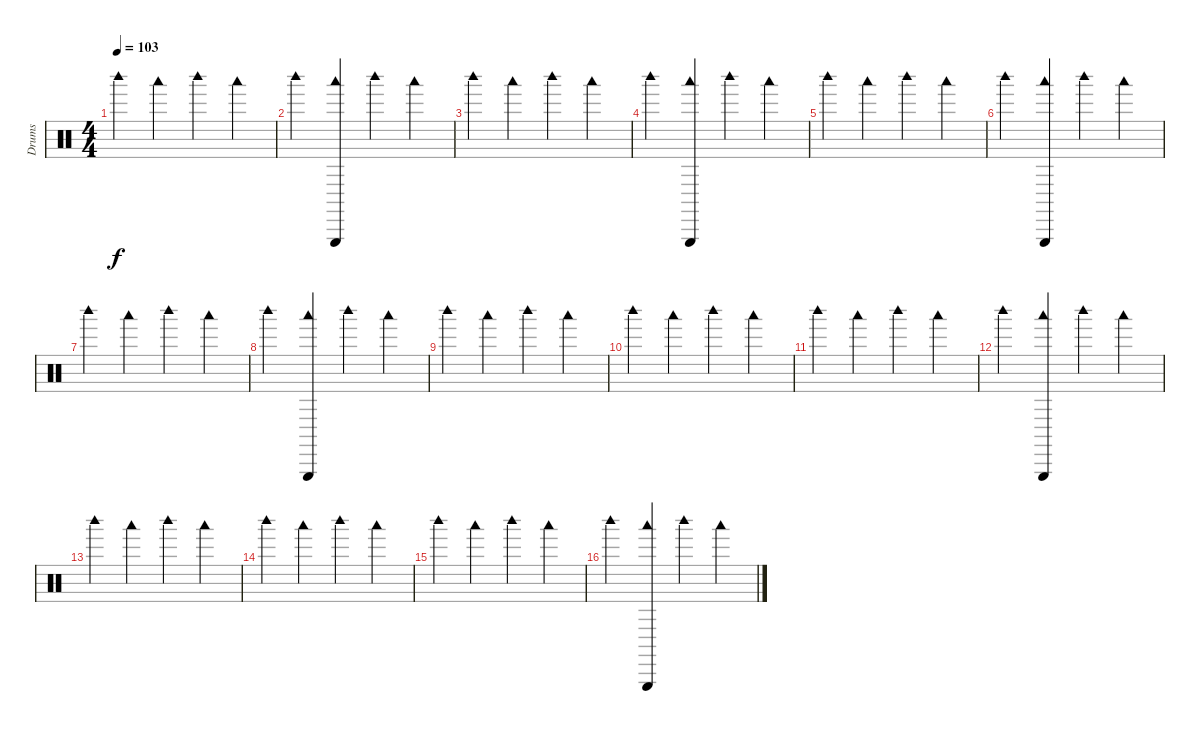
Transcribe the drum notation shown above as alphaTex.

\track ("Drums" "Drums") {instrument percussion}
\staff {score}
\articulation defaults
\ts (4 4)
\tempo 103
\clef neutral
\ks c "Woodblock high (hit)".4{dy f} "Woodblock low (hit)".4 "Woodblock high (hit)".4 "Woodblock low (hit)".4
|
"Woodblock high (hit)".4 ("Woodblock low (hit)" "Triangle (hit)").4 "Woodblock high (hit)".4 "Woodblock low (hit)".4 |
"Woodblock high (hit)".4 "Woodblock low (hit)".4 "Woodblock high (hit)".4 "Woodblock low (hit)".4 |
"Woodblock high (hit)".4 ("Woodblock low (hit)" "Triangle (hit)").4 "Woodblock high (hit)".4 "Woodblock low (hit)".4 |
"Woodblock high (hit)".4 "Woodblock low (hit)".4 "Woodblock high (hit)".4 "Woodblock low (hit)".4 |
"Woodblock high (hit)".4 ("Woodblock low (hit)" "Triangle (hit)").4 "Woodblock high (hit)".4 "Woodblock low (hit)".4 |
"Woodblock high (hit)".4 "Woodblock low (hit)".4 "Woodblock high (hit)".4 "Woodblock low (hit)".4 |
"Woodblock high (hit)".4 ("Woodblock low (hit)" "Triangle (hit)").4 "Woodblock high (hit)".4 "Woodblock low (hit)".4 |
"Woodblock high (hit)".4 "Woodblock low (hit)".4 "Woodblock high (hit)".4 "Woodblock low (hit)".4 |
"Woodblock high (hit)".4 "Woodblock low (hit)".4 "Woodblock high (hit)".4 "Woodblock low (hit)".4 |
"Woodblock high (hit)".4 "Woodblock low (hit)".4 "Woodblock high (hit)".4 "Woodblock low (hit)".4 |
"Woodblock high (hit)".4 ("Woodblock low (hit)" "Triangle (hit)").4 "Woodblock high (hit)".4 "Woodblock low (hit)".4 |
"Woodblock high (hit)".4 "Woodblock low (hit)".4 "Woodblock high (hit)".4 "Woodblock low (hit)".4 |
"Woodblock high (hit)".4 "Woodblock low (hit)".4 "Woodblock high (hit)".4 "Woodblock low (hit)".4 |
"Woodblock high (hit)".4 "Woodblock low (hit)".4 "Woodblock high (hit)".4 "Woodblock low (hit)".4 |
"Woodblock high (hit)".4 ("Woodblock low (hit)" "Triangle (hit)").4 "Woodblock high (hit)".4 "Woodblock low (hit)".4
